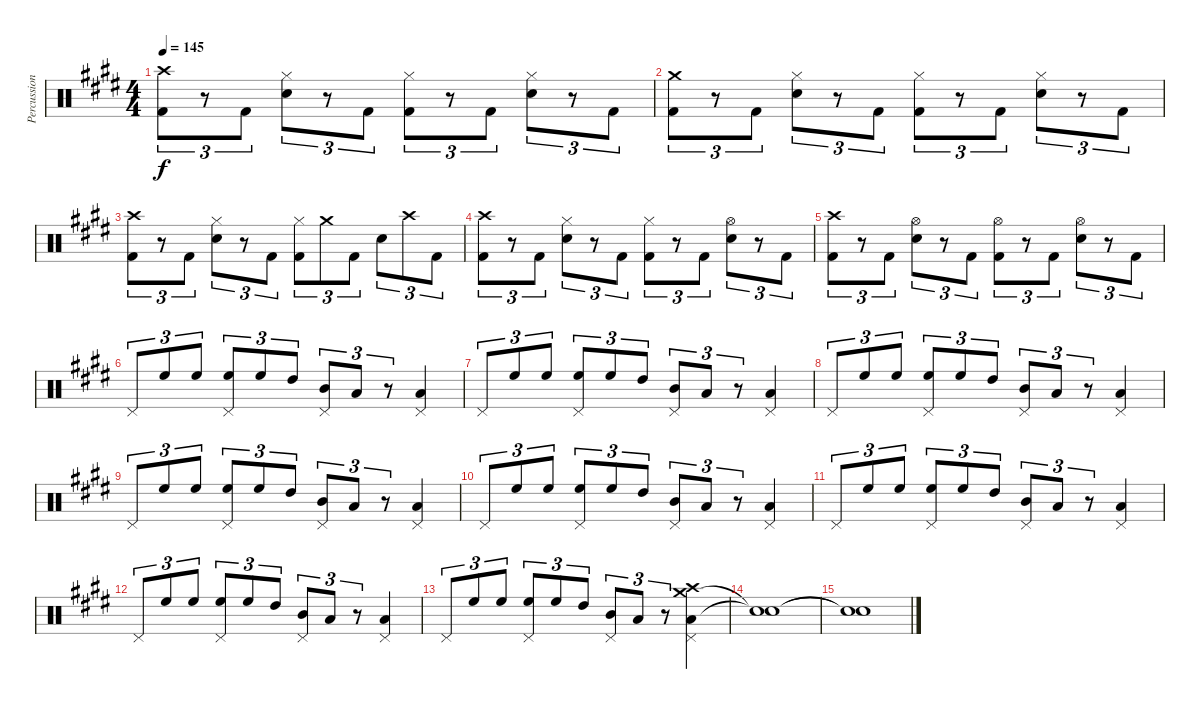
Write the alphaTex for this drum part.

\track ("Percussions" "Percussion") {solo instrument percussion}
\staff {score}
\articulation defaults
\ts (4 4)
\tempo 145
\clef neutral
\ks e
("Crash high (hit)" "Kick (hit) 2").8{tu (3 2) dy f} r.8{tu (3 2)} "Kick (hit) 2".8{tu (3 2)} ("Hi-Hat (closed)" "Snare (hit) 2").8{tu (3 2)} r.8{tu (3 2)} "Kick (hit) 2".8{tu (3 2)} ("Hi-Hat (closed)" "Kick (hit) 2").8{tu (3 2)} r.8{tu (3 2)} "Kick (hit) 2".8{tu (3 2)} ("Hi-Hat (closed)" "Snare (hit) 2").8{tu (3 2)} r.8{tu (3 2)} "Kick (hit) 2".8{tu (3 2)} |
("Crash medium (hit)" "Kick (hit) 2").8{tu (3 2)} r.8{tu (3 2)} "Kick (hit) 2".8{tu (3 2)} ("Hi-Hat (closed)" "Snare (hit) 2").8{tu (3 2)} r.8{tu (3 2)} "Kick (hit) 2".8{tu (3 2)} ("Hi-Hat (closed)" "Kick (hit) 2").8{tu (3 2)} r.8{tu (3 2)} "Kick (hit) 2".8{tu (3 2)} ("Hi-Hat (closed)" "Snare (hit) 2").8{tu (3 2)} r.8{tu (3 2)} "Kick (hit) 2".8{tu (3 2)} |
("Crash high (hit)" "Kick (hit) 2").8{tu (3 2)} r.8{tu (3 2)} "Kick (hit) 2".8{tu (3 2)} ("Hi-Hat (closed)" "Snare (hit) 2").8{tu (3 2)} r.8{tu (3 2)} "Kick (hit) 2".8{tu (3 2)} ("Hi-Hat (closed)" "Kick (hit) 2").8{tu (3 2)} "Crash medium (hit)".8{tu (3 2)} "Kick (hit) 2".8{tu (3 2)} "Snare (hit) 2".8{tu (3 2)} "Crash high (hit)".8{tu (3 2)} "Kick (hit) 2".8{tu (3 2)} |
("Crash high (hit)" "Kick (hit) 2").8{tu (3 2)} r.8{tu (3 2)} "Kick (hit) 2".8{tu (3 2)} ("Hi-Hat (closed)" "Snare (hit) 2").8{tu (3 2)} r.8{tu (3 2)} "Kick (hit) 2".8{tu (3 2)} ("Hi-Hat (closed)" "Kick (hit) 2").8{tu (3 2)} r.8{tu (3 2)} "Kick (hit) 2".8{tu (3 2)} ("Hi-Hat (open)" "Snare (hit) 2").8{tu (3 2)} r.8{tu (3 2)} "Kick (hit) 2".8{tu (3 2)} |
("Crash high (hit)" "Kick (hit) 2").8{tu (3 2)} r.8{tu (3 2)} "Kick (hit) 2".8{tu (3 2)} ("Hi-Hat (open)" "Snare (hit) 2").8{tu (3 2)} r.8{tu (3 2)} "Kick (hit) 2".8{tu (3 2)} ("Hi-Hat (open)" "Kick (hit) 2").8{tu (3 2)} r.8{tu (3 2)} "Kick (hit) 2".8{tu (3 2)} ("Hi-Hat (open)" "Snare (hit) 2").8{tu (3 2)} r.8{tu (3 2)} "Kick (hit) 2".8{tu (3 2)} |
"Pedal Hi-Hat (hit)".8{tu (3 2)} "High Floor Tom (hit)".8{tu (3 2)} "High Floor Tom (hit)".8{tu (3 2)} ("High Floor Tom (hit)" "Pedal Hi-Hat (hit)").8{tu (3 2)} "High Floor Tom (hit)".8{tu (3 2)} "High Tom (hit)".8{tu (3 2)} ("Mid Tom (hit)" "Pedal Hi-Hat (hit)").8{tu (3 2)} "Low Tom (hit)".8{tu (3 2)} r.8{tu (3 2)} ("Low Tom (hit)" "Pedal Hi-Hat (hit)").4 |
"Pedal Hi-Hat (hit)".8{tu (3 2)} "High Floor Tom (hit)".8{tu (3 2)} "High Floor Tom (hit)".8{tu (3 2)} ("High Floor Tom (hit)" "Pedal Hi-Hat (hit)").8{tu (3 2)} "High Floor Tom (hit)".8{tu (3 2)} "High Tom (hit)".8{tu (3 2)} ("Mid Tom (hit)" "Pedal Hi-Hat (hit)").8{tu (3 2)} "Low Tom (hit)".8{tu (3 2)} r.8{tu (3 2)} ("Low Tom (hit)" "Pedal Hi-Hat (hit)").4 |
"Pedal Hi-Hat (hit)".8{tu (3 2)} "High Floor Tom (hit)".8{tu (3 2)} "High Floor Tom (hit)".8{tu (3 2)} ("High Floor Tom (hit)" "Pedal Hi-Hat (hit)").8{tu (3 2)} "High Floor Tom (hit)".8{tu (3 2)} "High Tom (hit)".8{tu (3 2)} ("Mid Tom (hit)" "Pedal Hi-Hat (hit)").8{tu (3 2)} "Low Tom (hit)".8{tu (3 2)} r.8{tu (3 2)} ("Low Tom (hit)" "Pedal Hi-Hat (hit)").4 |
"Pedal Hi-Hat (hit)".8{tu (3 2)} "High Floor Tom (hit)".8{tu (3 2)} "High Floor Tom (hit)".8{tu (3 2)} ("High Floor Tom (hit)" "Pedal Hi-Hat (hit)").8{tu (3 2)} "High Floor Tom (hit)".8{tu (3 2)} "High Tom (hit)".8{tu (3 2)} ("Mid Tom (hit)" "Pedal Hi-Hat (hit)").8{tu (3 2)} "Low Tom (hit)".8{tu (3 2)} r.8{tu (3 2)} ("Low Tom (hit)" "Pedal Hi-Hat (hit)").4 |
"Pedal Hi-Hat (hit)".8{tu (3 2)} "High Floor Tom (hit)".8{tu (3 2)} "High Floor Tom (hit)".8{tu (3 2)} ("High Floor Tom (hit)" "Pedal Hi-Hat (hit)").8{tu (3 2)} "High Floor Tom (hit)".8{tu (3 2)} "High Tom (hit)".8{tu (3 2)} ("Mid Tom (hit)" "Pedal Hi-Hat (hit)").8{tu (3 2)} "Low Tom (hit)".8{tu (3 2)} r.8{tu (3 2)} ("Low Tom (hit)" "Pedal Hi-Hat (hit)").4 |
"Pedal Hi-Hat (hit)".8{tu (3 2)} "High Floor Tom (hit)".8{tu (3 2)} "High Floor Tom (hit)".8{tu (3 2)} ("High Floor Tom (hit)" "Pedal Hi-Hat (hit)").8{tu (3 2)} "High Floor Tom (hit)".8{tu (3 2)} "High Tom (hit)".8{tu (3 2)} ("Mid Tom (hit)" "Pedal Hi-Hat (hit)").8{tu (3 2)} "Low Tom (hit)".8{tu (3 2)} r.8{tu (3 2)} ("Low Tom (hit)" "Pedal Hi-Hat (hit)").4 |
"Pedal Hi-Hat (hit)".8{tu (3 2)} "High Floor Tom (hit)".8{tu (3 2)} "High Floor Tom (hit)".8{tu (3 2)} ("High Floor Tom (hit)" "Pedal Hi-Hat (hit)").8{tu (3 2)} "High Floor Tom (hit)".8{tu (3 2)} "High Tom (hit)".8{tu (3 2)} ("Mid Tom (hit)" "Pedal Hi-Hat (hit)").8{tu (3 2)} "Low Tom (hit)".8{tu (3 2)} r.8{tu (3 2)} ("Low Tom (hit)" "Pedal Hi-Hat (hit)").4 |
"Pedal Hi-Hat (hit)".8{tu (3 2)} "High Floor Tom (hit)".8{tu (3 2)} "High Floor Tom (hit)".8{tu (3 2)} ("High Floor Tom (hit)" "Pedal Hi-Hat (hit)").8{tu (3 2)} "High Floor Tom (hit)".8{tu (3 2)} "High Tom (hit)".8{tu (3 2)} ("Mid Tom (hit)" "Pedal Hi-Hat (hit)").8{tu (3 2)} "Low Tom (hit)".8{tu (3 2)} r.8{tu (3 2)} ("Crash medium (hit)" "Low Tom (hit)" "Crash high (hit)" "Pedal Hi-Hat (hit)").4 |
("Snare (hit)"{t} "Snare (hit)"{t}).1 |
("Snare (hit)"{t} "Snare (hit)"{t}).1
